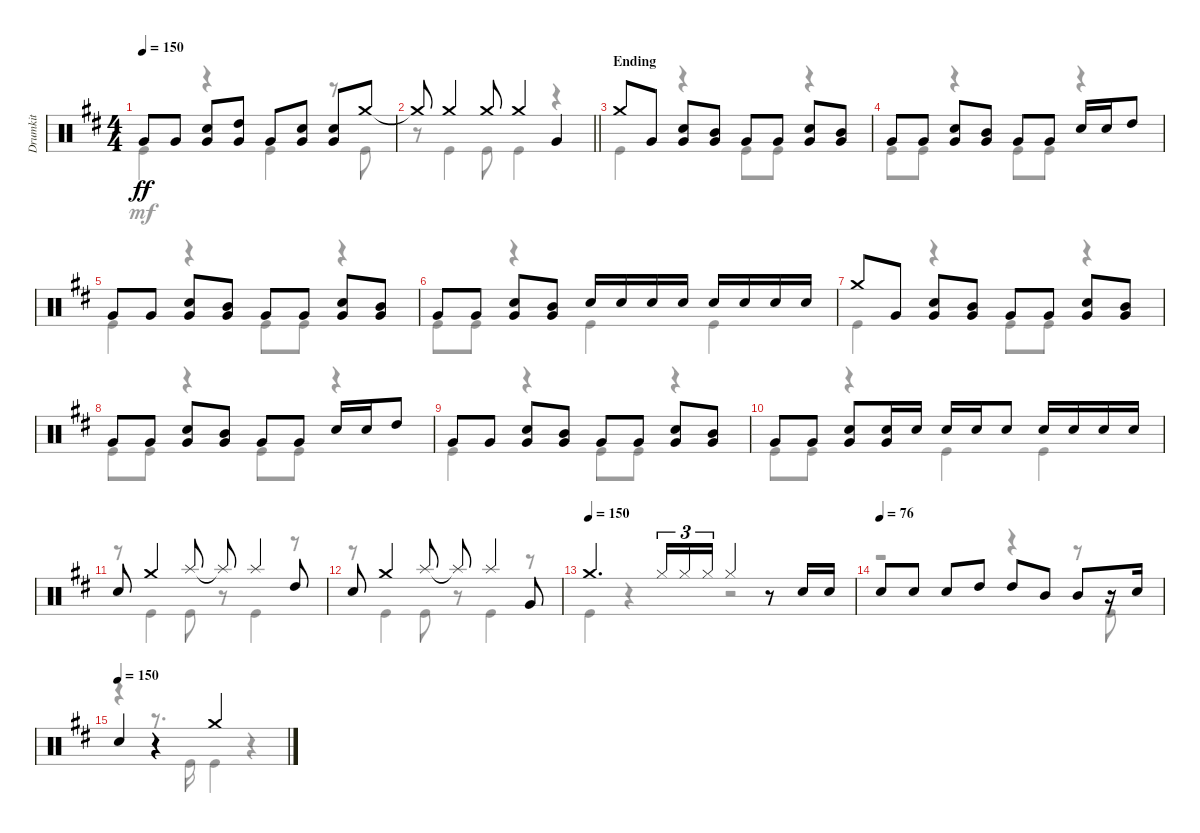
\track ("Drumkit" "Drumkit") {instrument percussion}
\staff {score}
\articulation defaults
\voice
\ts (4 4)
\tempo 150
\clef neutral
\ks d "Very Low Tom (hit)".8{dy ff} "Very Low Tom (hit)".8
("Very Low Tom (hit)" "Snare (hit) 2").8 ("Very Low Tom (hit)" "High Tom (hit)").8 "Very Low Tom (hit)".8 ("Very Low Tom (hit)" "Snare (hit) 2").8 ("Very Low Tom (hit)" "Snare (hit) 2").8 "Crash medium (hit)".8 |
\barLineRight lightlight "Crash medium (hit)"{t}.8 "Crash medium (hit)".4 "Crash medium (hit)".8 "Crash medium (hit)".4 "Very Low Tom (hit)".4
|
\section ("" "Ending")
"Crash medium (hit)".8 "Very Low Tom (hit)".8 ("Very Low Tom (hit)" "Snare (hit) 2").8 ("Very Low Tom (hit)" "Mid Tom (hit)").8 "Very Low Tom (hit)".8 "Very Low Tom (hit)".8 ("Very Low Tom (hit)" "Snare (hit) 2").8 ("Very Low Tom (hit)" "Mid Tom (hit)").8 |
"Very Low Tom (hit)".8 "Very Low Tom (hit)".8 ("Very Low Tom (hit)" "Snare (hit) 2").8 ("Very Low Tom (hit)" "Mid Tom (hit)").8 "Very Low Tom (hit)".8 "Very Low Tom (hit)".8 "Snare (hit) 2".16 "Snare (hit) 2".16 "High Tom (hit)".8 |
"Very Low Tom (hit)".8 "Very Low Tom (hit)".8 ("Very Low Tom (hit)" "Snare (hit) 2").8 ("Very Low Tom (hit)" "Mid Tom (hit)").8 "Very Low Tom (hit)".8 "Very Low Tom (hit)".8 ("Very Low Tom (hit)" "Snare (hit) 2").8 ("Very Low Tom (hit)" "Mid Tom (hit)").8 |
"Very Low Tom (hit)".8 "Very Low Tom (hit)".8 ("Very Low Tom (hit)" "Snare (hit) 2").8 ("Very Low Tom (hit)" "Mid Tom (hit)").8 "Snare (hit) 2".16 "Snare (hit) 2".16 "Snare (hit) 2".16 "Snare (hit) 2".16 "Snare (hit) 2".16 "Snare (hit) 2".16 "Snare (hit) 2".16 "Snare (hit) 2".16 |
"Crash medium (hit)".8 "Very Low Tom (hit)".8 ("Very Low Tom (hit)" "Snare (hit) 2").8 ("Very Low Tom (hit)" "Mid Tom (hit)").8 "Very Low Tom (hit)".8 "Very Low Tom (hit)".8 ("Very Low Tom (hit)" "Snare (hit) 2").8 ("Very Low Tom (hit)" "Mid Tom (hit)").8 |
"Very Low Tom (hit)".8 "Very Low Tom (hit)".8 ("Very Low Tom (hit)" "Snare (hit) 2").8 ("Very Low Tom (hit)" "Mid Tom (hit)").8 "Very Low Tom (hit)".8 "Very Low Tom (hit)".8 "Snare (hit) 2".16 "Snare (hit) 2".16 "High Tom (hit)".8 |
"Very Low Tom (hit)".8 "Very Low Tom (hit)".8 ("Very Low Tom (hit)" "Snare (hit) 2").8 ("Very Low Tom (hit)" "Mid Tom (hit)").8 "Very Low Tom (hit)".8 "Very Low Tom (hit)".8 ("Very Low Tom (hit)" "Snare (hit) 2").8 ("Very Low Tom (hit)" "Mid Tom (hit)").8 |
"Very Low Tom (hit)".8 "Very Low Tom (hit)".8 ("Very Low Tom (hit)" "Snare (hit) 2").8 ("Very Low Tom (hit)" "Snare (hit) 2").16 "Snare (hit) 2".16 "Snare (hit) 2".16 "Snare (hit) 2".16 "Snare (hit) 2".8 "Snare (hit) 2".16 "Snare (hit) 2".16 "Snare (hit) 2".16 "Snare (hit) 2".16 |
"Snare (hit) 2".8 "Crash medium (hit)".4 "Splash (hit)".8 "Splash (hit)"{t}.8 "Splash (hit)".4 "High Tom (hit)".8 |
"Snare (hit) 2".8 "Crash medium (hit)".4 "Splash (hit)".8 "Splash (hit)"{t}.8 "Splash (hit)".4 "Very Low Tom (hit)".8 |
\tempo (150)
"Crash medium (hit)".4{d} "Hi-Hat (closed)".16{tu (3 2)} "Hi-Hat (closed)".16{tu (3 2)} "Hi-Hat (closed)".16{tu (3 2)} "Hi-Hat (closed)".4 r.8 "Snare (hit) 2".16 "Snare (hit) 2".16 |
\tempo (76)
"Snare (hit) 2".8 "Snare (hit) 2".8 "Snare (hit) 2".8 "High Tom (hit)".8 "High Tom (hit)".8 "Mid Tom (hit)".8 "Mid Tom (hit)".8 r.16 "Snare (hit) 2".16 |
\tempo (150)
"Snare (hit) 2".4 r.4 "Crash medium (hit)".2
\voice
\clef neutral
\ottava regular
\simile none
\ks d "Kick (hit)".4{dy mf}
r.4 "Kick (hit)".4 r.8 "Kick (hit)".8 |
\barLineRight lightlight
r.8 "Kick (hit)".4 "Kick (hit)".8 "Kick (hit)".4 r.4 |
"Kick (hit)".4 r.4 "Kick (hit)".8 "Kick (hit)".8 r.4 |
"Kick (hit)".8 "Kick (hit)".8 r.4 "Kick (hit)".8 "Kick (hit)".8 r.4 |
"Kick (hit)".4 r.4 "Kick (hit)".8 "Kick (hit)".8 r.4 |
"Kick (hit)".8 "Kick (hit)".8 r.4 "Kick (hit)".4 "Kick (hit)".4 |
"Kick (hit)".4 r.4 "Kick (hit)".8 "Kick (hit)".8 r.4 |
"Kick (hit)".8 "Kick (hit)".8 r.4 "Kick (hit)".8 "Kick (hit)".8 r.4 |
"Kick (hit)".4 r.4 "Kick (hit)".8 "Kick (hit)".8 r.4 |
"Kick (hit)".8 "Kick (hit)".8 r.4 "Kick (hit)".4 "Kick (hit)".4 |
r.8 "Kick (hit)".4 "Kick (hit)".8 r.8 "Kick (hit)".4 r.8 |
r.8 "Kick (hit)".4 "Kick (hit)".8 r.8 "Kick (hit)".4 r.8 |
"Kick (hit)".4 r.4 r.2 |
r.2 r.4 r.8 "Kick (hit)".8 |
r.4 r.8{d} "Kick (hit)".16 "Kick (hit)".4 r.4
